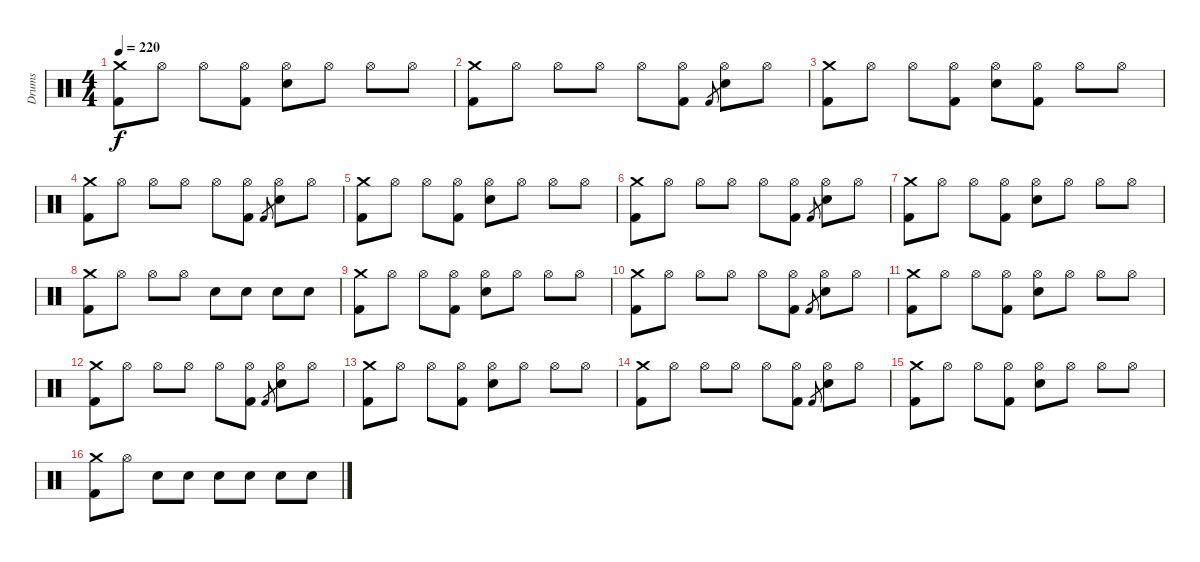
\track ("Drums" "Drums") {instrument percussion}
\staff {score}
\articulation defaults
\ts (4 4)
\tempo 220
\clef neutral
\ks c
("Kick (hit) 2" "Crash medium (hit)").8{dy f} "Hi-Hat (open)".8 "Hi-Hat (open)".8 ("Kick (hit) 2" "Hi-Hat (open)").8 ("Electric Snare (hit)" "Hi-Hat (open)").8 "Hi-Hat (open)".8 "Hi-Hat (open)".8 "Hi-Hat (open)".8 |
("Kick (hit) 2" "Crash medium (hit)").8 "Hi-Hat (open)".8 "Hi-Hat (open)".8 "Hi-Hat (open)".8 "Hi-Hat (open)".8 ("Kick (hit) 2" "Hi-Hat (open)").8 "Kick (hit) 2".8{gr} ("Electric Snare (hit)" "Hi-Hat (open)").8 "Hi-Hat (open)".8 |
("Kick (hit) 2" "Crash medium (hit)").8 "Hi-Hat (open)".8 "Hi-Hat (open)".8 ("Kick (hit) 2" "Hi-Hat (open)").8 ("Electric Snare (hit)" "Hi-Hat (open)").8 ("Kick (hit) 2" "Hi-Hat (open)").8 "Hi-Hat (open)".8 "Hi-Hat (open)".8 |
("Kick (hit) 2" "Crash medium (hit)").8 "Hi-Hat (open)".8 "Hi-Hat (open)".8 "Hi-Hat (open)".8 "Hi-Hat (open)".8 ("Kick (hit) 2" "Hi-Hat (open)").8 "Kick (hit) 2".8{gr} ("Electric Snare (hit)" "Hi-Hat (open)").8 "Hi-Hat (open)".8 |
("Kick (hit) 2" "Crash medium (hit)").8 "Hi-Hat (open)".8 "Hi-Hat (open)".8 ("Kick (hit) 2" "Hi-Hat (open)").8 ("Electric Snare (hit)" "Hi-Hat (open)").8 "Hi-Hat (open)".8 "Hi-Hat (open)".8 "Hi-Hat (open)".8 |
("Kick (hit) 2" "Crash medium (hit)").8 "Hi-Hat (open)".8 "Hi-Hat (open)".8 "Hi-Hat (open)".8 "Hi-Hat (open)".8 ("Kick (hit) 2" "Hi-Hat (open)").8 "Kick (hit) 2".8{gr} ("Electric Snare (hit)" "Hi-Hat (open)").8 "Hi-Hat (open)".8 |
("Kick (hit) 2" "Crash medium (hit)").8 "Hi-Hat (open)".8 "Hi-Hat (open)".8 ("Kick (hit) 2" "Hi-Hat (open)").8 ("Electric Snare (hit)" "Hi-Hat (open)").8 "Hi-Hat (open)".8 "Hi-Hat (open)".8 "Hi-Hat (open)".8 |
("Kick (hit) 2" "Crash medium (hit)").8 "Hi-Hat (open)".8 "Hi-Hat (open)".8 "Hi-Hat (open)".8 "Electric Snare (hit)".8 "Electric Snare (hit)".8 "Electric Snare (hit)".8 "Electric Snare (hit)".8 |
("Kick (hit) 2" "Crash medium (hit)").8 "Hi-Hat (open)".8 "Hi-Hat (open)".8 ("Kick (hit) 2" "Hi-Hat (open)").8 ("Electric Snare (hit)" "Hi-Hat (open)").8 "Hi-Hat (open)".8 "Hi-Hat (open)".8 "Hi-Hat (open)".8 |
("Kick (hit) 2" "Crash medium (hit)").8 "Hi-Hat (open)".8 "Hi-Hat (open)".8 "Hi-Hat (open)".8 "Hi-Hat (open)".8 ("Kick (hit) 2" "Hi-Hat (open)").8 "Kick (hit) 2".8{gr} ("Electric Snare (hit)" "Hi-Hat (open)").8 "Hi-Hat (open)".8 |
("Kick (hit) 2" "Crash medium (hit)").8 "Hi-Hat (open)".8 "Hi-Hat (open)".8 ("Kick (hit) 2" "Hi-Hat (open)").8 ("Electric Snare (hit)" "Hi-Hat (open)").8 "Hi-Hat (open)".8 "Hi-Hat (open)".8 "Hi-Hat (open)".8 |
("Kick (hit) 2" "Crash medium (hit)").8 "Hi-Hat (open)".8 "Hi-Hat (open)".8 "Hi-Hat (open)".8 "Hi-Hat (open)".8 ("Kick (hit) 2" "Hi-Hat (open)").8 "Kick (hit) 2".8{gr} ("Electric Snare (hit)" "Hi-Hat (open)").8 "Hi-Hat (open)".8 |
("Kick (hit) 2" "Crash medium (hit)").8 "Hi-Hat (open)".8 "Hi-Hat (open)".8 ("Kick (hit) 2" "Hi-Hat (open)").8 ("Electric Snare (hit)" "Hi-Hat (open)").8 "Hi-Hat (open)".8 "Hi-Hat (open)".8 "Hi-Hat (open)".8 |
("Kick (hit) 2" "Crash medium (hit)").8 "Hi-Hat (open)".8 "Hi-Hat (open)".8 "Hi-Hat (open)".8 "Hi-Hat (open)".8 ("Kick (hit) 2" "Hi-Hat (open)").8 "Kick (hit) 2".8{gr} ("Electric Snare (hit)" "Hi-Hat (open)").8 "Hi-Hat (open)".8 |
("Kick (hit) 2" "Crash medium (hit)").8 "Hi-Hat (open)".8 "Hi-Hat (open)".8 ("Kick (hit) 2" "Hi-Hat (open)").8 ("Electric Snare (hit)" "Hi-Hat (open)").8 "Hi-Hat (open)".8 "Hi-Hat (open)".8 "Hi-Hat (open)".8 |
("Kick (hit) 2" "Crash medium (hit)").8 "Hi-Hat (open)".8 "Electric Snare (hit)".8 "Electric Snare (hit)".8 "Electric Snare (hit)".8 "Electric Snare (hit)".8 "Electric Snare (hit)".8 "Electric Snare (hit)".8
